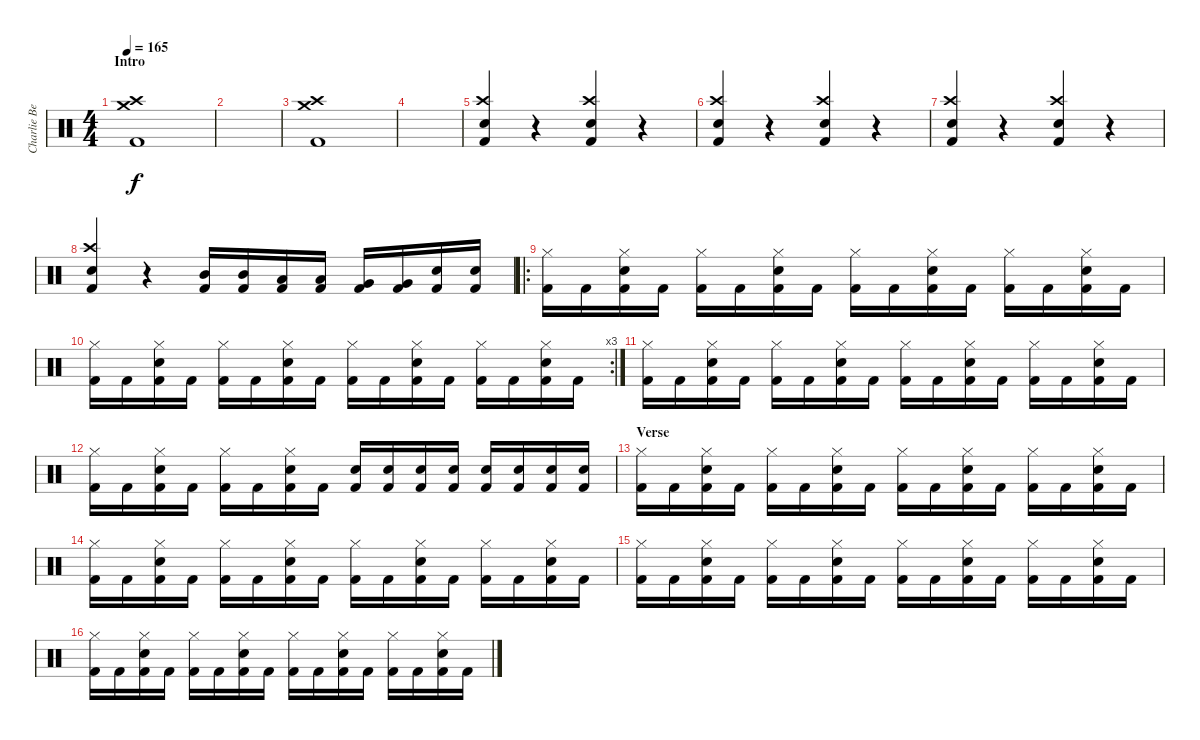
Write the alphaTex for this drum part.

\track ("Charlie Benante" "Charlie Be") {instrument percussion}
\staff {score}
\articulation defaults
\ts (4 4)
\section ("" "Intro")
\tempo 165
\clef neutral
\ks c
("Crash medium (hit)" "Kick (hit) 2" "Crash high (hit)").1{dy f} |
|
("Crash medium (hit)" "Kick (hit) 2" "Crash high (hit)").1 |
|
("Crash high (hit)" "Electric Snare (hit)" "Kick (hit) 2").4 r.4 ("Crash high (hit)" "Electric Snare (hit)" "Kick (hit) 2").4 r.4 |
("Crash high (hit)" "Electric Snare (hit)" "Kick (hit) 2").4 r.4 ("Crash high (hit)" "Electric Snare (hit)" "Kick (hit) 2").4 r.4 |
("Crash high (hit)" "Electric Snare (hit)" "Kick (hit) 2").4 r.4 ("Crash high (hit)" "Electric Snare (hit)" "Kick (hit) 2").4 r.4 |
("Crash high (hit)" "Electric Snare (hit)" "Kick (hit) 2").4 r.4 ("Mid Tom (hit)" "Kick (hit) 2").16 ("Mid Tom (hit)" "Kick (hit) 2").16 ("Low Tom (hit)" "Kick (hit) 2").16 ("Low Tom (hit)" "Kick (hit) 2").16 ("Very Low Tom (hit)" "Kick (hit) 2").16 ("Very Low Tom (hit)" "Kick (hit) 2").16 ("Electric Snare (hit)" "Kick (hit) 2").16 ("Electric Snare (hit)" "Kick (hit) 2").16 |
\ro
("Kick (hit) 2" "Hi-Hat (closed)").16 "Kick (hit) 2".16 ("Kick (hit) 2" "Hi-Hat (closed)" "Electric Snare (hit)").16 "Kick (hit) 2".16 ("Kick (hit) 2" "Hi-Hat (closed)").16 "Kick (hit) 2".16 ("Kick (hit) 2" "Hi-Hat (closed)" "Electric Snare (hit)").16 "Kick (hit) 2".16 ("Kick (hit) 2" "Hi-Hat (closed)").16 "Kick (hit) 2".16 ("Kick (hit) 2" "Hi-Hat (closed)" "Electric Snare (hit)").16 "Kick (hit) 2".16 ("Kick (hit) 2" "Hi-Hat (closed)").16 "Kick (hit) 2".16 ("Kick (hit) 2" "Hi-Hat (closed)" "Electric Snare (hit)").16 "Kick (hit) 2".16 |
\rc 3
("Kick (hit) 2" "Hi-Hat (closed)").16 "Kick (hit) 2".16 ("Kick (hit) 2" "Hi-Hat (closed)" "Electric Snare (hit)").16 "Kick (hit) 2".16 ("Kick (hit) 2" "Hi-Hat (closed)").16 "Kick (hit) 2".16 ("Kick (hit) 2" "Hi-Hat (closed)" "Electric Snare (hit)").16 "Kick (hit) 2".16 ("Kick (hit) 2" "Hi-Hat (closed)").16 "Kick (hit) 2".16 ("Kick (hit) 2" "Hi-Hat (closed)" "Electric Snare (hit)").16 "Kick (hit) 2".16 ("Kick (hit) 2" "Hi-Hat (closed)").16 "Kick (hit) 2".16 ("Kick (hit) 2" "Hi-Hat (closed)" "Electric Snare (hit)").16 "Kick (hit) 2".16 |
("Kick (hit) 2" "Hi-Hat (closed)").16 "Kick (hit) 2".16 ("Kick (hit) 2" "Hi-Hat (closed)" "Electric Snare (hit)").16 "Kick (hit) 2".16 ("Kick (hit) 2" "Hi-Hat (closed)").16 "Kick (hit) 2".16 ("Kick (hit) 2" "Hi-Hat (closed)" "Electric Snare (hit)").16 "Kick (hit) 2".16 ("Kick (hit) 2" "Hi-Hat (closed)").16 "Kick (hit) 2".16 ("Kick (hit) 2" "Hi-Hat (closed)" "Electric Snare (hit)").16 "Kick (hit) 2".16 ("Kick (hit) 2" "Hi-Hat (closed)").16 "Kick (hit) 2".16 ("Kick (hit) 2" "Hi-Hat (closed)" "Electric Snare (hit)").16 "Kick (hit) 2".16 |
("Kick (hit) 2" "Hi-Hat (closed)").16 "Kick (hit) 2".16 ("Kick (hit) 2" "Hi-Hat (closed)" "Electric Snare (hit)").16 "Kick (hit) 2".16 ("Kick (hit) 2" "Hi-Hat (closed)").16 "Kick (hit) 2".16 ("Kick (hit) 2" "Hi-Hat (closed)" "Electric Snare (hit)").16 "Kick (hit) 2".16 ("Kick (hit) 2" "Electric Snare (hit)").16 ("Kick (hit) 2" "Electric Snare (hit)").16 ("Kick (hit) 2" "Electric Snare (hit)").16 ("Kick (hit) 2" "Electric Snare (hit)").16 ("Kick (hit) 2" "Electric Snare (hit)").16 ("Kick (hit) 2" "Electric Snare (hit)").16 ("Kick (hit) 2" "Electric Snare (hit)").16 ("Kick (hit) 2" "Electric Snare (hit)").16 |
\section ("" "Verse")
("Kick (hit) 2" "Hi-Hat (closed)").16 "Kick (hit) 2".16 ("Kick (hit) 2" "Hi-Hat (closed)" "Electric Snare (hit)").16 "Kick (hit) 2".16 ("Kick (hit) 2" "Hi-Hat (closed)").16 "Kick (hit) 2".16 ("Kick (hit) 2" "Hi-Hat (closed)" "Electric Snare (hit)").16 "Kick (hit) 2".16 ("Kick (hit) 2" "Hi-Hat (closed)").16 "Kick (hit) 2".16 ("Kick (hit) 2" "Hi-Hat (closed)" "Electric Snare (hit)").16 "Kick (hit) 2".16 ("Kick (hit) 2" "Hi-Hat (closed)").16 "Kick (hit) 2".16 ("Kick (hit) 2" "Hi-Hat (closed)" "Electric Snare (hit)").16 "Kick (hit) 2".16 |
("Kick (hit) 2" "Hi-Hat (closed)").16 "Kick (hit) 2".16 ("Kick (hit) 2" "Hi-Hat (closed)" "Electric Snare (hit)").16 "Kick (hit) 2".16 ("Kick (hit) 2" "Hi-Hat (closed)").16 "Kick (hit) 2".16 ("Kick (hit) 2" "Hi-Hat (closed)" "Electric Snare (hit)").16 "Kick (hit) 2".16 ("Kick (hit) 2" "Hi-Hat (closed)").16 "Kick (hit) 2".16 ("Kick (hit) 2" "Hi-Hat (closed)" "Electric Snare (hit)").16 "Kick (hit) 2".16 ("Kick (hit) 2" "Hi-Hat (closed)").16 "Kick (hit) 2".16 ("Kick (hit) 2" "Hi-Hat (closed)" "Electric Snare (hit)").16 "Kick (hit) 2".16 |
("Kick (hit) 2" "Hi-Hat (closed)").16 "Kick (hit) 2".16 ("Kick (hit) 2" "Hi-Hat (closed)" "Electric Snare (hit)").16 "Kick (hit) 2".16 ("Kick (hit) 2" "Hi-Hat (closed)").16 "Kick (hit) 2".16 ("Kick (hit) 2" "Hi-Hat (closed)" "Electric Snare (hit)").16 "Kick (hit) 2".16 ("Kick (hit) 2" "Hi-Hat (closed)").16 "Kick (hit) 2".16 ("Kick (hit) 2" "Hi-Hat (closed)" "Electric Snare (hit)").16 "Kick (hit) 2".16 ("Kick (hit) 2" "Hi-Hat (closed)").16 "Kick (hit) 2".16 ("Kick (hit) 2" "Hi-Hat (closed)" "Electric Snare (hit)").16 "Kick (hit) 2".16 |
("Kick (hit) 2" "Hi-Hat (closed)").16 "Kick (hit) 2".16 ("Kick (hit) 2" "Hi-Hat (closed)" "Electric Snare (hit)").16 "Kick (hit) 2".16 ("Kick (hit) 2" "Hi-Hat (closed)").16 "Kick (hit) 2".16 ("Kick (hit) 2" "Hi-Hat (closed)" "Electric Snare (hit)").16 "Kick (hit) 2".16 ("Kick (hit) 2" "Hi-Hat (closed)").16 "Kick (hit) 2".16 ("Kick (hit) 2" "Hi-Hat (closed)" "Electric Snare (hit)").16 "Kick (hit) 2".16 ("Kick (hit) 2" "Hi-Hat (closed)").16 "Kick (hit) 2".16 ("Kick (hit) 2" "Hi-Hat (closed)" "Electric Snare (hit)").16 "Kick (hit) 2".16
